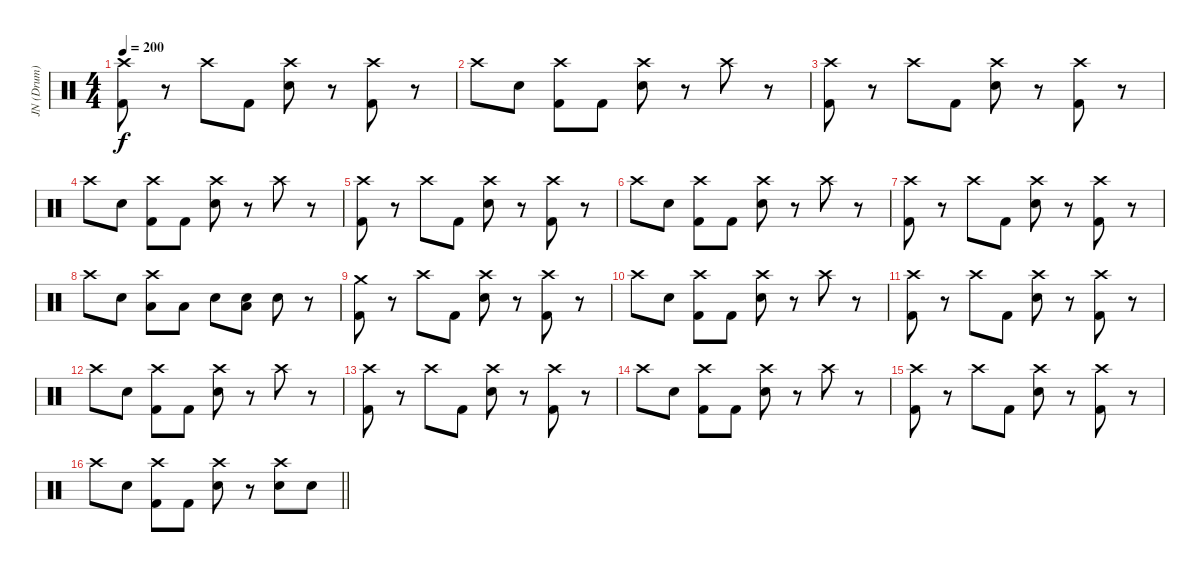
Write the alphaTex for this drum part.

\track ("JN (Drum)" "JN (Drum)") {instrument percussion}
\staff {score}
\articulation defaults
\ts (4 4)
\tempo 200
\clef neutral
\ks c
("Crash high (hit)" "Kick (hit) 2").8{dy f} r.8 "Crash high (hit)".8 "Kick (hit) 2".8 ("Crash high (hit)" "Electric Snare (hit)").8 r.8 ("Crash high (hit)" "Kick (hit) 2").8 r.8 |
"Crash high (hit)".8 "Electric Snare (hit)".8 ("Crash high (hit)" "Kick (hit) 2").8 "Kick (hit) 2".8 ("Crash high (hit)" "Electric Snare (hit)").8 r.8 "Crash high (hit)".8 r.8 |
("Crash high (hit)" "Kick (hit) 2").8 r.8 "Crash high (hit)".8 "Kick (hit) 2".8 ("Crash high (hit)" "Electric Snare (hit)").8 r.8 ("Crash high (hit)" "Kick (hit) 2").8 r.8 |
"Crash high (hit)".8 "Electric Snare (hit)".8 ("Crash high (hit)" "Kick (hit) 2").8 "Kick (hit) 2".8 ("Crash high (hit)" "Electric Snare (hit)").8 r.8 "Crash high (hit)".8 r.8 |
("Crash high (hit)" "Kick (hit) 2").8 r.8 "Crash high (hit)".8 "Kick (hit) 2".8 ("Crash high (hit)" "Electric Snare (hit)").8 r.8 ("Crash high (hit)" "Kick (hit) 2").8 r.8 |
"Crash high (hit)".8 "Electric Snare (hit)".8 ("Crash high (hit)" "Kick (hit) 2").8 "Kick (hit) 2".8 ("Crash high (hit)" "Electric Snare (hit)").8 r.8 "Crash high (hit)".8 r.8 |
("Crash high (hit)" "Kick (hit) 2").8 r.8 "Crash high (hit)".8 "Kick (hit) 2".8 ("Crash high (hit)" "Electric Snare (hit)").8 r.8 ("Crash high (hit)" "Kick (hit) 2").8 r.8 |
"Crash high (hit)".8 "Electric Snare (hit)".8 ("Crash high (hit)" "Low Tom (hit)").8 "Low Tom (hit)".8 "Electric Snare (hit)".8 ("Electric Snare (hit)" "Low Tom (hit)").8 "Electric Snare (hit)".8 r.8 |
("Crash medium (hit)" "Kick (hit) 2").8 r.8 "Crash high (hit)".8 "Kick (hit) 2".8 ("Crash high (hit)" "Electric Snare (hit)").8 r.8 ("Crash high (hit)" "Kick (hit) 2").8 r.8 |
"Crash high (hit)".8 "Electric Snare (hit)".8 ("Crash high (hit)" "Kick (hit) 2").8 "Kick (hit) 2".8 ("Crash high (hit)" "Electric Snare (hit)").8 r.8 "Crash high (hit)".8 r.8 |
("Crash high (hit)" "Kick (hit) 2").8 r.8 "Crash high (hit)".8 "Kick (hit) 2".8 ("Crash high (hit)" "Electric Snare (hit)").8 r.8 ("Crash high (hit)" "Kick (hit) 2").8 r.8 |
"Crash high (hit)".8 "Electric Snare (hit)".8 ("Crash high (hit)" "Kick (hit) 2").8 "Kick (hit) 2".8 ("Crash high (hit)" "Electric Snare (hit)").8 r.8 "Crash high (hit)".8 r.8 |
("Crash high (hit)" "Kick (hit) 2").8 r.8 "Crash high (hit)".8 "Kick (hit) 2".8 ("Crash high (hit)" "Electric Snare (hit)").8 r.8 ("Crash high (hit)" "Kick (hit) 2").8 r.8 |
"Crash high (hit)".8 "Electric Snare (hit)".8 ("Crash high (hit)" "Kick (hit) 2").8 "Kick (hit) 2".8 ("Crash high (hit)" "Electric Snare (hit)").8 r.8 "Crash high (hit)".8 r.8 |
("Crash high (hit)" "Kick (hit) 2").8 r.8 "Crash high (hit)".8 "Kick (hit) 2".8 ("Crash high (hit)" "Electric Snare (hit)").8 r.8 ("Crash high (hit)" "Kick (hit) 2").8 r.8 |
\barLineRight lightlight "Crash high (hit)".8 "Electric Snare (hit)".8
("Crash high (hit)" "Kick (hit) 2").8 "Kick (hit) 2".8 ("Crash high (hit)" "Electric Snare (hit)").8 r.8 ("Crash high (hit)" "Electric Snare (hit)").8 "Electric Snare (hit)".8
